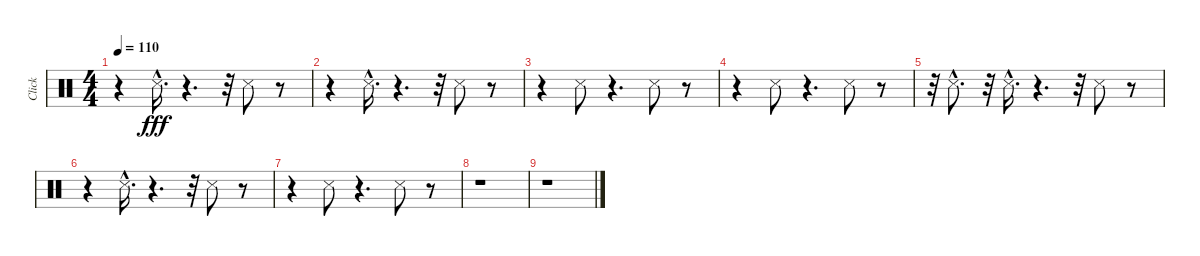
\track ("Click" "Click") {instrument percussion}
\staff {score}
\articulation defaults
\ts (4 4)
\tempo 110
\clef neutral
\ks c
r.4{dy fff} "Snare (side stick) 3"{hac}.16{d} r.4{d} r.32 "Snare (side stick) 3".8 r.8 |
r.4 "Snare (side stick) 3"{hac}.16{d} r.4{d} r.32 "Snare (side stick) 3".8 r.8 |
r.4 "Snare (side stick) 3".8 r.4{d} "Snare (side stick) 3".8 r.8 |
r.4 "Snare (side stick) 3".8 r.4{d} "Snare (side stick) 3".8 r.8 |
r.32 "Snare (side stick) 3"{hac}.8{d} r.32 "Snare (side stick) 3"{hac}.16{d} r.4{d} r.32 "Snare (side stick) 3".8 r.8 |
r.4 "Snare (side stick) 3"{hac}.16{d} r.4{d} r.32 "Snare (side stick) 3".8 r.8 |
r.4 "Snare (side stick) 3".8 r.4{d} "Snare (side stick) 3".8 r.8 |
r.1 |
r.1
